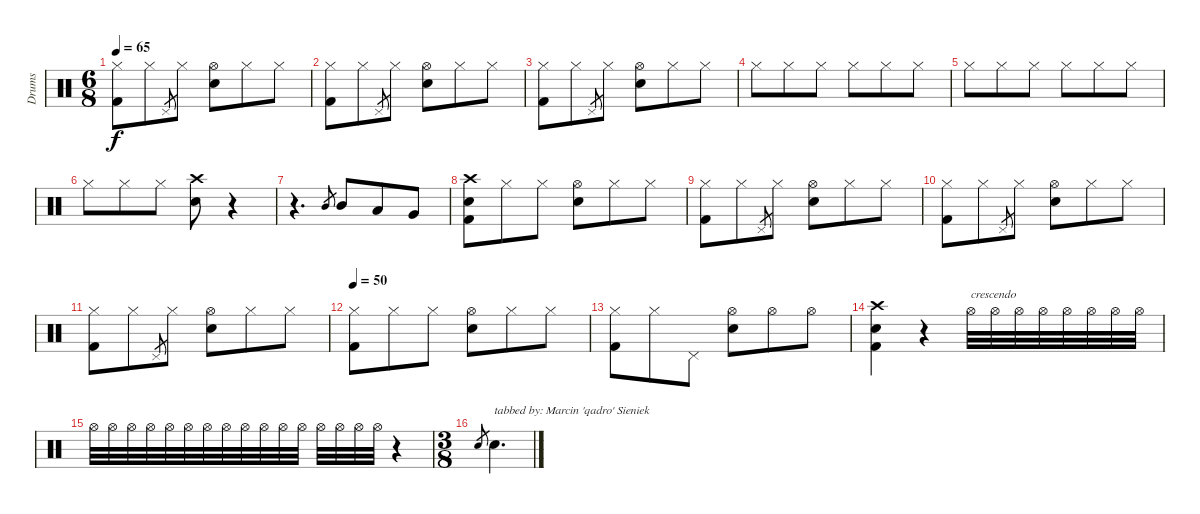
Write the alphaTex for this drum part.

\track ("Drums" "Drums") {instrument percussion}
\staff {score}
\articulation defaults
\ts (6 8)
\tempo 65
\clef neutral
\ks c
("Hi-Hat (closed)" "Kick (hit) 2").8{dy f} "Hi-Hat (closed)".8 "Pedal Hi-Hat (hit)".8{gr} "Hi-Hat (closed)".8 ("Hi-Hat (open)" "Snare (hit) 2").8 "Hi-Hat (closed)".8 "Hi-Hat (closed)".8 |
("Hi-Hat (closed)" "Kick (hit) 2").8 "Hi-Hat (closed)".8 "Pedal Hi-Hat (hit)".8{gr} "Hi-Hat (closed)".8 ("Hi-Hat (open)" "Snare (hit) 2").8 "Hi-Hat (closed)".8 "Hi-Hat (closed)".8 |
("Hi-Hat (closed)" "Kick (hit) 2").8 "Hi-Hat (closed)".8 "Pedal Hi-Hat (hit)".8{gr} "Hi-Hat (closed)".8 ("Hi-Hat (open)" "Snare (hit) 2").8 "Hi-Hat (closed)".8 "Hi-Hat (closed)".8 |
"Hi-Hat (closed)".8 "Hi-Hat (closed)".8 "Hi-Hat (closed)".8 "Hi-Hat (closed)".8 "Hi-Hat (closed)".8 "Hi-Hat (closed)".8 |
"Hi-Hat (closed)".8 "Hi-Hat (closed)".8 "Hi-Hat (closed)".8 "Hi-Hat (closed)".8 "Hi-Hat (closed)".8 "Hi-Hat (closed)".8 |
"Hi-Hat (closed)".8 "Hi-Hat (closed)".8 "Hi-Hat (closed)".8 ("Crash high (hit)" "Snare (hit) 2").8 r.4 |
r.4{d} "Mid Tom (hit)".8{gr} "Mid Tom (hit)".8 "Low Tom (hit)".8 "Very Low Tom (hit)".8 |
("Crash high (hit)" "Snare (hit) 2" "Kick (hit) 2").8 "Hi-Hat (closed)".8 "Hi-Hat (closed)".8 ("Hi-Hat (open)" "Snare (hit) 2").8 "Hi-Hat (closed)".8 "Hi-Hat (closed)".8 |
("Hi-Hat (closed)" "Kick (hit) 2").8 "Hi-Hat (closed)".8 "Pedal Hi-Hat (hit)".8{gr} "Hi-Hat (closed)".8 ("Hi-Hat (open)" "Snare (hit) 2").8 "Hi-Hat (closed)".8 "Hi-Hat (closed)".8 |
("Hi-Hat (closed)" "Kick (hit) 2").8 "Hi-Hat (closed)".8 "Pedal Hi-Hat (hit)".8{gr} "Hi-Hat (closed)".8 ("Hi-Hat (open)" "Snare (hit) 2").8 "Hi-Hat (closed)".8 "Hi-Hat (closed)".8 |
("Hi-Hat (closed)" "Kick (hit) 2").8 "Hi-Hat (closed)".8 "Pedal Hi-Hat (hit)".8{gr} "Hi-Hat (closed)".8 ("Hi-Hat (open)" "Snare (hit) 2").8 "Hi-Hat (closed)".8 "Hi-Hat (closed)".8 |
\tempo 50
("Hi-Hat (closed)" "Kick (hit) 2").8 "Hi-Hat (closed)".8 "Hi-Hat (closed)".8 ("Hi-Hat (open)" "Snare (hit) 2").8 "Hi-Hat (closed)".8 "Hi-Hat (closed)".8 |
("Hi-Hat (closed)" "Kick (hit) 2").8 "Hi-Hat (closed)".8 "Pedal Hi-Hat (hit)".8 ("Hi-Hat (open)" "Snare (hit) 2").8 "Hi-Hat (open)".8 "Hi-Hat (open)".8 |
("Crash high (hit)" "Snare (hit) 2" "Kick (hit) 2").4 r.4{volume 4} "Hi-Hat (open)".32{txt "crescendo" volume 12} "Hi-Hat (open)".32 "Hi-Hat (open)".32 "Hi-Hat (open)".32 "Hi-Hat (open)".32 "Hi-Hat (open)".32 "Hi-Hat (open)".32 "Hi-Hat (open)".32 |
"Hi-Hat (open)".32 "Hi-Hat (open)".32 "Hi-Hat (open)".32 "Hi-Hat (open)".32 "Hi-Hat (open)".32 "Hi-Hat (open)".32 "Hi-Hat (open)".32 "Hi-Hat (open)".32 "Hi-Hat (open)".32 "Hi-Hat (open)".32 "Hi-Hat (open)".32 "Hi-Hat (open)".32 "Hi-Hat (open)".32 "Hi-Hat (open)".32 "Hi-Hat (open)".32 "Hi-Hat (open)".32 r.4 |
\ts (3 8)
"Snare (hit) 2".8{gr} "Snare (hit) 2".4{d txt "tabbed by: Marcin 'qadro' Sieniek"}
